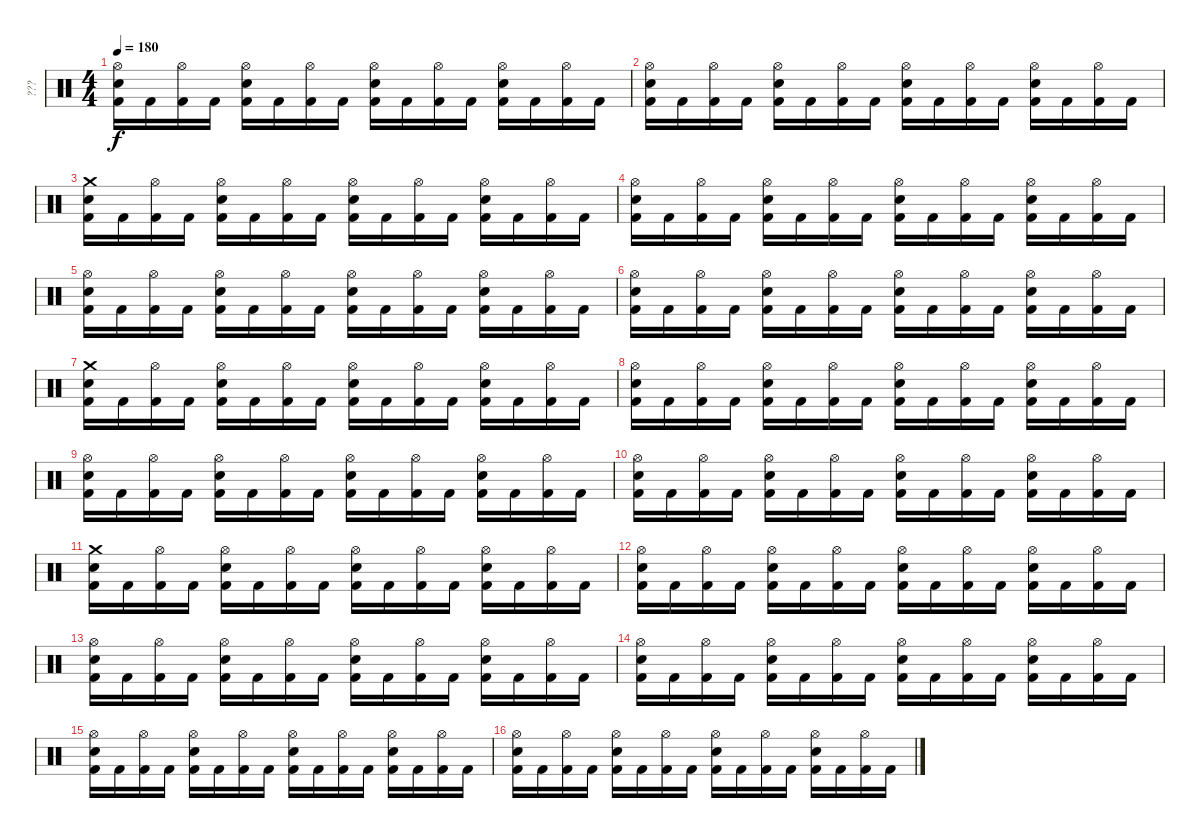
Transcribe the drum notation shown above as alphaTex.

\track ("???" "???") {instrument percussion}
\staff {score}
\articulation defaults
\ts (4 4)
\tempo 180
\clef neutral
\ks c
("Hi-Hat (open)" "Kick (hit) 2" "Snare (hit) 2").16{dy f} "Kick (hit) 2".16 ("Hi-Hat (open)" "Kick (hit) 2").16 "Kick (hit) 2".16 ("Hi-Hat (open)" "Kick (hit) 2" "Snare (hit) 2").16 "Kick (hit) 2".16 ("Hi-Hat (open)" "Kick (hit) 2").16 "Kick (hit) 2".16 ("Hi-Hat (open)" "Kick (hit) 2" "Snare (hit) 2").16 "Kick (hit) 2".16 ("Hi-Hat (open)" "Kick (hit) 2").16 "Kick (hit) 2".16 ("Hi-Hat (open)" "Kick (hit) 2" "Snare (hit) 2").16 "Kick (hit) 2".16 ("Hi-Hat (open)" "Kick (hit) 2").16 "Kick (hit) 2".16 |
("Hi-Hat (open)" "Kick (hit) 2" "Snare (hit) 2").16 "Kick (hit) 2".16 ("Hi-Hat (open)" "Kick (hit) 2").16 "Kick (hit) 2".16 ("Hi-Hat (open)" "Kick (hit) 2" "Snare (hit) 2").16 "Kick (hit) 2".16 ("Hi-Hat (open)" "Kick (hit) 2").16 "Kick (hit) 2".16 ("Hi-Hat (open)" "Kick (hit) 2" "Snare (hit) 2").16 "Kick (hit) 2".16 ("Hi-Hat (open)" "Kick (hit) 2").16 "Kick (hit) 2".16 ("Hi-Hat (open)" "Kick (hit) 2" "Snare (hit) 2").16 "Kick (hit) 2".16 ("Hi-Hat (open)" "Kick (hit) 2").16 "Kick (hit) 2".16 |
("Crash medium (hit)" "Kick (hit) 2" "Snare (hit) 2").16 "Kick (hit) 2".16 ("Hi-Hat (open)" "Kick (hit) 2").16 "Kick (hit) 2".16 ("Hi-Hat (open)" "Kick (hit) 2" "Snare (hit) 2").16 "Kick (hit) 2".16 ("Hi-Hat (open)" "Kick (hit) 2").16 "Kick (hit) 2".16 ("Hi-Hat (open)" "Kick (hit) 2" "Snare (hit) 2").16 "Kick (hit) 2".16 ("Hi-Hat (open)" "Kick (hit) 2").16 "Kick (hit) 2".16 ("Hi-Hat (open)" "Kick (hit) 2" "Snare (hit) 2").16 "Kick (hit) 2".16 ("Hi-Hat (open)" "Kick (hit) 2").16 "Kick (hit) 2".16 |
("Hi-Hat (open)" "Kick (hit) 2" "Snare (hit) 2").16 "Kick (hit) 2".16 ("Hi-Hat (open)" "Kick (hit) 2").16 "Kick (hit) 2".16 ("Hi-Hat (open)" "Kick (hit) 2" "Snare (hit) 2").16 "Kick (hit) 2".16 ("Hi-Hat (open)" "Kick (hit) 2").16 "Kick (hit) 2".16 ("Hi-Hat (open)" "Kick (hit) 2" "Snare (hit) 2").16 "Kick (hit) 2".16 ("Hi-Hat (open)" "Kick (hit) 2").16 "Kick (hit) 2".16 ("Hi-Hat (open)" "Kick (hit) 2" "Snare (hit) 2").16 "Kick (hit) 2".16 ("Hi-Hat (open)" "Kick (hit) 2").16 "Kick (hit) 2".16 |
("Hi-Hat (open)" "Kick (hit) 2" "Snare (hit) 2").16 "Kick (hit) 2".16 ("Hi-Hat (open)" "Kick (hit) 2").16 "Kick (hit) 2".16 ("Hi-Hat (open)" "Kick (hit) 2" "Snare (hit) 2").16 "Kick (hit) 2".16 ("Hi-Hat (open)" "Kick (hit) 2").16 "Kick (hit) 2".16 ("Hi-Hat (open)" "Kick (hit) 2" "Snare (hit) 2").16 "Kick (hit) 2".16 ("Hi-Hat (open)" "Kick (hit) 2").16 "Kick (hit) 2".16 ("Hi-Hat (open)" "Kick (hit) 2" "Snare (hit) 2").16 "Kick (hit) 2".16 ("Hi-Hat (open)" "Kick (hit) 2").16 "Kick (hit) 2".16 |
("Hi-Hat (open)" "Kick (hit) 2" "Snare (hit) 2").16 "Kick (hit) 2".16 ("Hi-Hat (open)" "Kick (hit) 2").16 "Kick (hit) 2".16 ("Hi-Hat (open)" "Kick (hit) 2" "Snare (hit) 2").16 "Kick (hit) 2".16 ("Hi-Hat (open)" "Kick (hit) 2").16 "Kick (hit) 2".16 ("Hi-Hat (open)" "Kick (hit) 2" "Snare (hit) 2").16 "Kick (hit) 2".16 ("Hi-Hat (open)" "Kick (hit) 2").16 "Kick (hit) 2".16 ("Hi-Hat (open)" "Kick (hit) 2" "Snare (hit) 2").16 "Kick (hit) 2".16 ("Hi-Hat (open)" "Kick (hit) 2").16 "Kick (hit) 2".16 |
("Crash medium (hit)" "Kick (hit) 2" "Snare (hit) 2").16 "Kick (hit) 2".16 ("Hi-Hat (open)" "Kick (hit) 2").16 "Kick (hit) 2".16 ("Hi-Hat (open)" "Kick (hit) 2" "Snare (hit) 2").16 "Kick (hit) 2".16 ("Hi-Hat (open)" "Kick (hit) 2").16 "Kick (hit) 2".16 ("Hi-Hat (open)" "Kick (hit) 2" "Snare (hit) 2").16 "Kick (hit) 2".16 ("Hi-Hat (open)" "Kick (hit) 2").16 "Kick (hit) 2".16 ("Hi-Hat (open)" "Kick (hit) 2" "Snare (hit) 2").16 "Kick (hit) 2".16 ("Hi-Hat (open)" "Kick (hit) 2").16 "Kick (hit) 2".16 |
("Hi-Hat (open)" "Kick (hit) 2" "Snare (hit) 2").16 "Kick (hit) 2".16 ("Hi-Hat (open)" "Kick (hit) 2").16 "Kick (hit) 2".16 ("Hi-Hat (open)" "Kick (hit) 2" "Snare (hit) 2").16 "Kick (hit) 2".16 ("Hi-Hat (open)" "Kick (hit) 2").16 "Kick (hit) 2".16 ("Hi-Hat (open)" "Kick (hit) 2" "Snare (hit) 2").16 "Kick (hit) 2".16 ("Hi-Hat (open)" "Kick (hit) 2").16 "Kick (hit) 2".16 ("Hi-Hat (open)" "Kick (hit) 2" "Snare (hit) 2").16 "Kick (hit) 2".16 ("Hi-Hat (open)" "Kick (hit) 2").16 "Kick (hit) 2".16 |
("Hi-Hat (open)" "Kick (hit) 2" "Snare (hit) 2").16 "Kick (hit) 2".16 ("Hi-Hat (open)" "Kick (hit) 2").16 "Kick (hit) 2".16 ("Hi-Hat (open)" "Kick (hit) 2" "Snare (hit) 2").16 "Kick (hit) 2".16 ("Hi-Hat (open)" "Kick (hit) 2").16 "Kick (hit) 2".16 ("Hi-Hat (open)" "Kick (hit) 2" "Snare (hit) 2").16 "Kick (hit) 2".16 ("Hi-Hat (open)" "Kick (hit) 2").16 "Kick (hit) 2".16 ("Hi-Hat (open)" "Kick (hit) 2" "Snare (hit) 2").16 "Kick (hit) 2".16 ("Hi-Hat (open)" "Kick (hit) 2").16 "Kick (hit) 2".16 |
("Hi-Hat (open)" "Kick (hit) 2" "Snare (hit) 2").16 "Kick (hit) 2".16 ("Hi-Hat (open)" "Kick (hit) 2").16 "Kick (hit) 2".16 ("Hi-Hat (open)" "Kick (hit) 2" "Snare (hit) 2").16 "Kick (hit) 2".16 ("Hi-Hat (open)" "Kick (hit) 2").16 "Kick (hit) 2".16 ("Hi-Hat (open)" "Kick (hit) 2" "Snare (hit) 2").16 "Kick (hit) 2".16 ("Hi-Hat (open)" "Kick (hit) 2").16 "Kick (hit) 2".16 ("Hi-Hat (open)" "Kick (hit) 2" "Snare (hit) 2").16 "Kick (hit) 2".16 ("Hi-Hat (open)" "Kick (hit) 2").16 "Kick (hit) 2".16 |
("Crash medium (hit)" "Kick (hit) 2" "Snare (hit) 2").16 "Kick (hit) 2".16 ("Hi-Hat (open)" "Kick (hit) 2").16 "Kick (hit) 2".16 ("Hi-Hat (open)" "Kick (hit) 2" "Snare (hit) 2").16 "Kick (hit) 2".16 ("Hi-Hat (open)" "Kick (hit) 2").16 "Kick (hit) 2".16 ("Hi-Hat (open)" "Kick (hit) 2" "Snare (hit) 2").16 "Kick (hit) 2".16 ("Hi-Hat (open)" "Kick (hit) 2").16 "Kick (hit) 2".16 ("Hi-Hat (open)" "Kick (hit) 2" "Snare (hit) 2").16 "Kick (hit) 2".16 ("Hi-Hat (open)" "Kick (hit) 2").16 "Kick (hit) 2".16 |
("Hi-Hat (open)" "Kick (hit) 2" "Snare (hit) 2").16 "Kick (hit) 2".16 ("Hi-Hat (open)" "Kick (hit) 2").16 "Kick (hit) 2".16 ("Hi-Hat (open)" "Kick (hit) 2" "Snare (hit) 2").16 "Kick (hit) 2".16 ("Hi-Hat (open)" "Kick (hit) 2").16 "Kick (hit) 2".16 ("Hi-Hat (open)" "Kick (hit) 2" "Snare (hit) 2").16 "Kick (hit) 2".16 ("Hi-Hat (open)" "Kick (hit) 2").16 "Kick (hit) 2".16 ("Hi-Hat (open)" "Kick (hit) 2" "Snare (hit) 2").16 "Kick (hit) 2".16 ("Hi-Hat (open)" "Kick (hit) 2").16 "Kick (hit) 2".16 |
("Hi-Hat (open)" "Kick (hit) 2" "Snare (hit) 2").16 "Kick (hit) 2".16 ("Hi-Hat (open)" "Kick (hit) 2").16 "Kick (hit) 2".16 ("Hi-Hat (open)" "Kick (hit) 2" "Snare (hit) 2").16 "Kick (hit) 2".16 ("Hi-Hat (open)" "Kick (hit) 2").16 "Kick (hit) 2".16 ("Hi-Hat (open)" "Kick (hit) 2" "Snare (hit) 2").16 "Kick (hit) 2".16 ("Hi-Hat (open)" "Kick (hit) 2").16 "Kick (hit) 2".16 ("Hi-Hat (open)" "Kick (hit) 2" "Snare (hit) 2").16 "Kick (hit) 2".16 ("Hi-Hat (open)" "Kick (hit) 2").16 "Kick (hit) 2".16 |
("Hi-Hat (open)" "Kick (hit) 2" "Snare (hit) 2").16 "Kick (hit) 2".16 ("Hi-Hat (open)" "Kick (hit) 2").16 "Kick (hit) 2".16 ("Hi-Hat (open)" "Kick (hit) 2" "Snare (hit) 2").16 "Kick (hit) 2".16 ("Hi-Hat (open)" "Kick (hit) 2").16 "Kick (hit) 2".16 ("Hi-Hat (open)" "Kick (hit) 2" "Snare (hit) 2").16 "Kick (hit) 2".16 ("Hi-Hat (open)" "Kick (hit) 2").16 "Kick (hit) 2".16 ("Hi-Hat (open)" "Kick (hit) 2" "Snare (hit) 2").16 "Kick (hit) 2".16 ("Hi-Hat (open)" "Kick (hit) 2").16 "Kick (hit) 2".16 |
("Hi-Hat (open)" "Kick (hit) 2" "Snare (hit) 2").16 "Kick (hit) 2".16 ("Hi-Hat (open)" "Kick (hit) 2").16 "Kick (hit) 2".16 ("Hi-Hat (open)" "Kick (hit) 2" "Snare (hit) 2").16 "Kick (hit) 2".16 ("Hi-Hat (open)" "Kick (hit) 2").16 "Kick (hit) 2".16 ("Hi-Hat (open)" "Kick (hit) 2" "Snare (hit) 2").16 "Kick (hit) 2".16 ("Hi-Hat (open)" "Kick (hit) 2").16 "Kick (hit) 2".16 ("Hi-Hat (open)" "Kick (hit) 2" "Snare (hit) 2").16 "Kick (hit) 2".16 ("Hi-Hat (open)" "Kick (hit) 2").16 "Kick (hit) 2".16 |
("Hi-Hat (open)" "Kick (hit) 2" "Snare (hit) 2").16 "Kick (hit) 2".16 ("Hi-Hat (open)" "Kick (hit) 2").16 "Kick (hit) 2".16 ("Hi-Hat (open)" "Kick (hit) 2" "Snare (hit) 2").16 "Kick (hit) 2".16 ("Hi-Hat (open)" "Kick (hit) 2").16 "Kick (hit) 2".16 ("Hi-Hat (open)" "Kick (hit) 2" "Snare (hit) 2").16 "Kick (hit) 2".16 ("Hi-Hat (open)" "Kick (hit) 2").16 "Kick (hit) 2".16 ("Hi-Hat (open)" "Kick (hit) 2" "Snare (hit) 2").16 "Kick (hit) 2".16 ("Hi-Hat (open)" "Kick (hit) 2").16 "Kick (hit) 2".16
